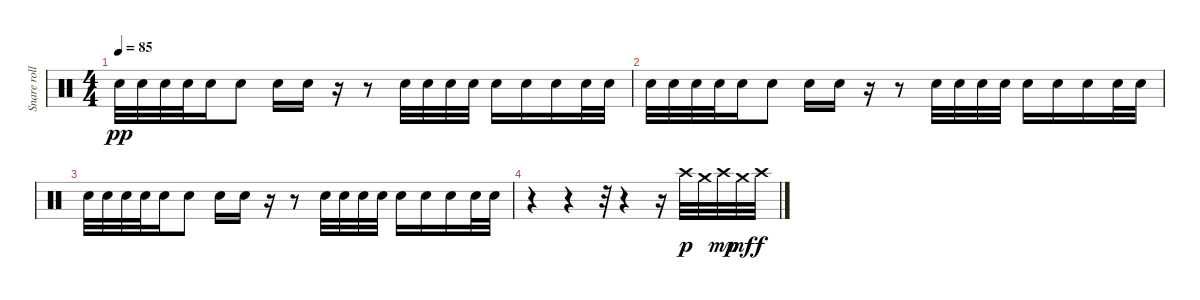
\track ("Snare rolls" "Snare roll") {instrument percussion}
\staff {score}
\articulation defaults
\ts (4 4)
\tempo 85
\clef neutral
\ks c "Electric Snare (hit)".32{dy pp} "Electric Snare (hit)".32 "Electric Snare (hit)".32 "Electric Snare (hit)".32 "Electric Snare (hit)".16 "Electric Snare (hit)".8 "Electric Snare (hit)".16 "Electric Snare (hit)".16
r.16 r.8 "Electric Snare (hit)".32 "Electric Snare (hit)".32 "Electric Snare (hit)".32 "Electric Snare (hit)".32 "Electric Snare (hit)".16 "Electric Snare (hit)".16 "Electric Snare (hit)".16 "Electric Snare (hit)".32 "Electric Snare (hit)".32 |
"Electric Snare (hit)".32 "Electric Snare (hit)".32 "Electric Snare (hit)".32 "Electric Snare (hit)".32 "Electric Snare (hit)".16 "Electric Snare (hit)".8 "Electric Snare (hit)".16 "Electric Snare (hit)".16 r.16 r.8 "Electric Snare (hit)".32 "Electric Snare (hit)".32 "Electric Snare (hit)".32 "Electric Snare (hit)".32 "Electric Snare (hit)".16 "Electric Snare (hit)".16 "Electric Snare (hit)".16 "Electric Snare (hit)".32 "Electric Snare (hit)".32 |
"Electric Snare (hit)".32 "Electric Snare (hit)".32 "Electric Snare (hit)".32 "Electric Snare (hit)".32 "Electric Snare (hit)".16 "Electric Snare (hit)".8 "Electric Snare (hit)".16 "Electric Snare (hit)".16 r.16 r.8 "Electric Snare (hit)".32 "Electric Snare (hit)".32 "Electric Snare (hit)".32 "Electric Snare (hit)".32 "Electric Snare (hit)".16 "Electric Snare (hit)".16 "Electric Snare (hit)".16 "Electric Snare (hit)".32 "Electric Snare (hit)".32 |
r.4 r.4 r.32 r.4 r.16 "Crash high (hit)".32{dy p} "Crash medium (hit)".32 "Crash high (hit)".32{dy mp} "Crash medium (hit)".32{dy mf} "Crash high (hit)".32{dy f}
